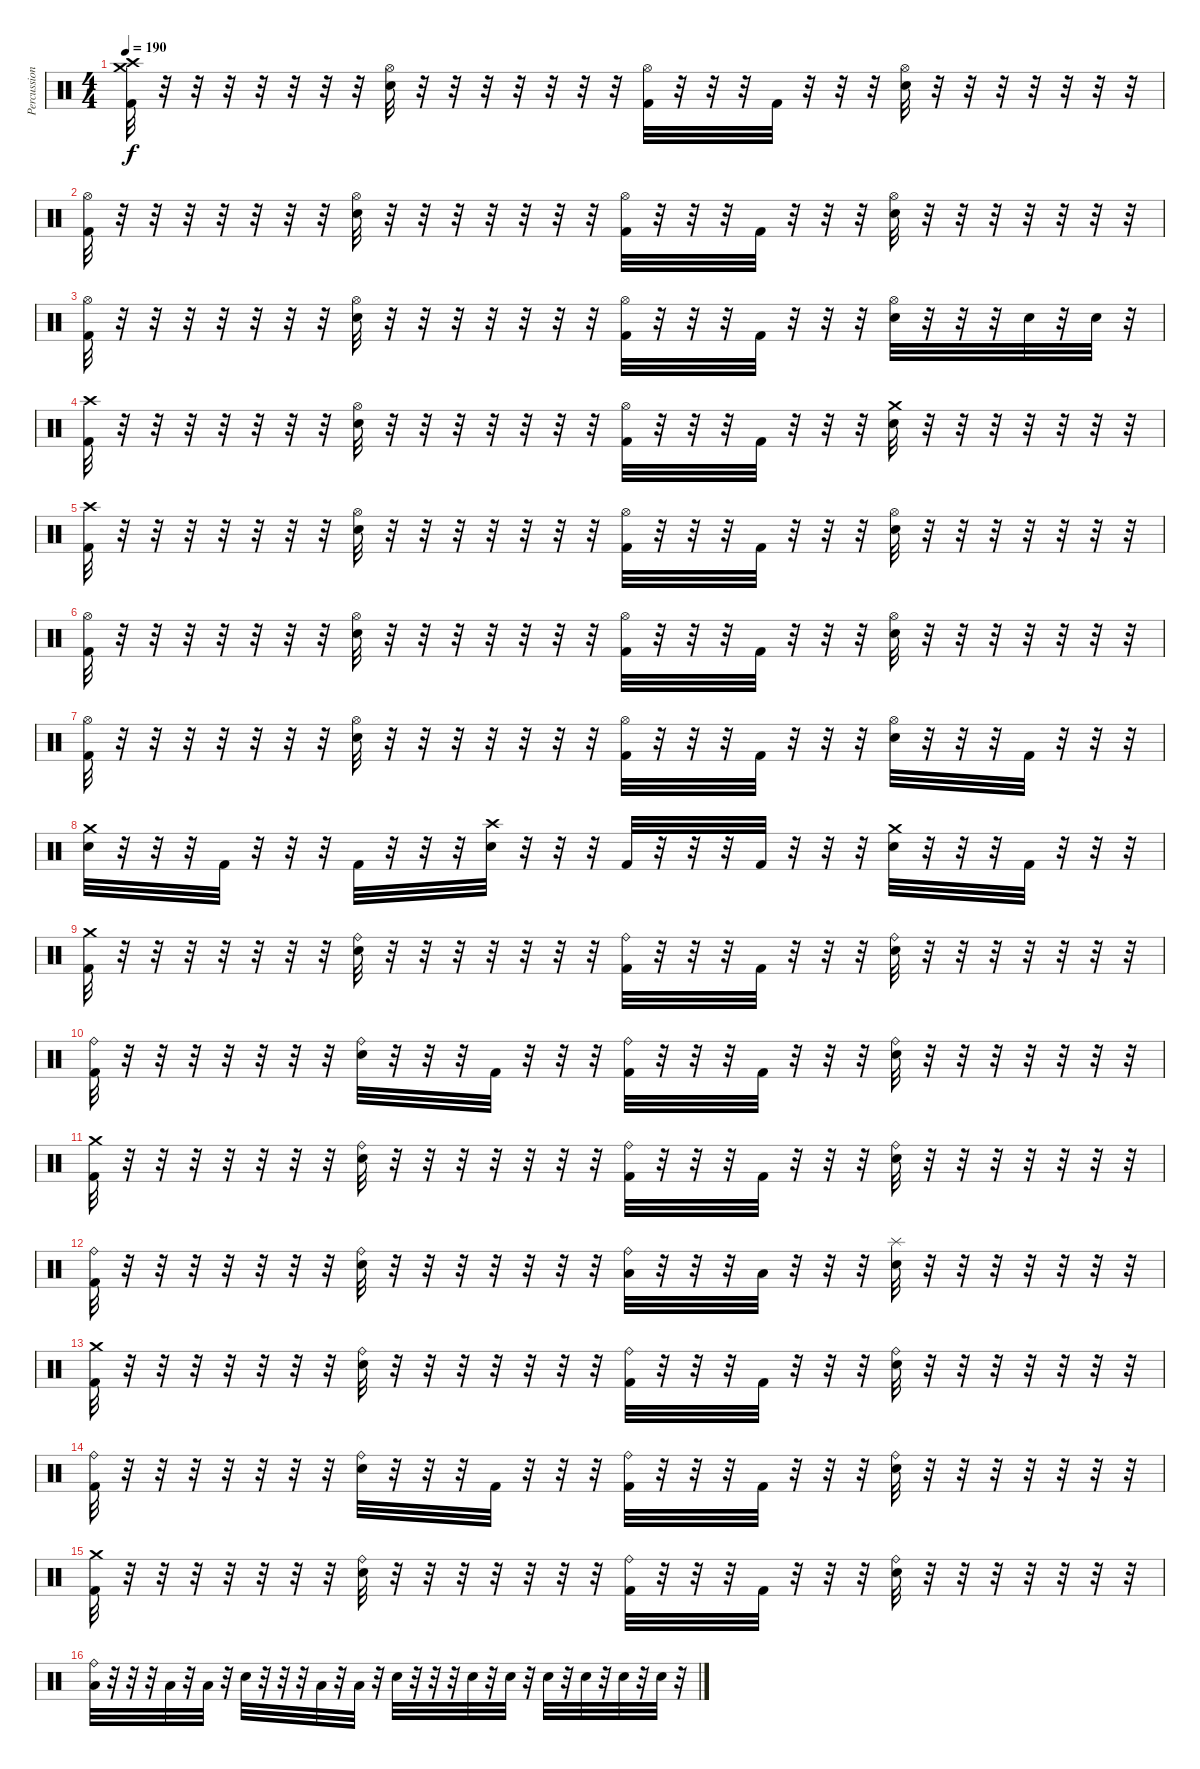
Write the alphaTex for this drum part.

\track ("Percussion" "Percussion") {instrument percussion}
\staff {score}
\articulation defaults
\ts (4 4)
\tempo 190
\clef neutral
\ks c
("Crash medium (hit)" "Crash high (hit)" "Kick (hit) 2").32{dy f} r.32 r.32 r.32 r.32 r.32 r.32 r.32 ("Electric Snare (hit)" "Hi-Hat (open)").32 r.32 r.32 r.32 r.32 r.32 r.32 r.32 ("Kick (hit) 2" "Hi-Hat (open)").32 r.32 r.32 r.32 "Kick (hit) 2".32 r.32 r.32 r.32 ("Electric Snare (hit)" "Hi-Hat (open)").32 r.32 r.32 r.32 r.32 r.32 r.32 r.32 |
("Kick (hit) 2" "Hi-Hat (open)").32 r.32 r.32 r.32 r.32 r.32 r.32 r.32 ("Electric Snare (hit)" "Hi-Hat (open)").32 r.32 r.32 r.32 r.32 r.32 r.32 r.32 ("Kick (hit) 2" "Hi-Hat (open)").32 r.32 r.32 r.32 "Kick (hit) 2".32 r.32 r.32 r.32 ("Electric Snare (hit)" "Hi-Hat (open)").32 r.32 r.32 r.32 r.32 r.32 r.32 r.32 |
("Kick (hit) 2" "Hi-Hat (open)").32 r.32 r.32 r.32 r.32 r.32 r.32 r.32 ("Electric Snare (hit)" "Hi-Hat (open)").32 r.32 r.32 r.32 r.32 r.32 r.32 r.32 ("Kick (hit) 2" "Hi-Hat (open)").32 r.32 r.32 r.32 "Kick (hit) 2".32 r.32 r.32 r.32 ("Electric Snare (hit)" "Hi-Hat (open)").32 r.32 r.32 r.32 "Electric Snare (hit)".32 r.32 "Electric Snare (hit)".32 r.32 |
("Crash high (hit)" "Kick (hit) 2").32 r.32 r.32 r.32 r.32 r.32 r.32 r.32 ("Electric Snare (hit)" "Hi-Hat (open)").32 r.32 r.32 r.32 r.32 r.32 r.32 r.32 ("Kick (hit) 2" "Hi-Hat (open)").32 r.32 r.32 r.32 "Kick (hit) 2".32 r.32 r.32 r.32 ("Crash medium (hit)" "Electric Snare (hit)").32 r.32 r.32 r.32 r.32 r.32 r.32 r.32 |
("Crash high (hit)" "Kick (hit) 2").32 r.32 r.32 r.32 r.32 r.32 r.32 r.32 ("Electric Snare (hit)" "Hi-Hat (open)").32 r.32 r.32 r.32 r.32 r.32 r.32 r.32 ("Kick (hit) 2" "Hi-Hat (open)").32 r.32 r.32 r.32 "Kick (hit) 2".32 r.32 r.32 r.32 ("Electric Snare (hit)" "Hi-Hat (open)").32 r.32 r.32 r.32 r.32 r.32 r.32 r.32 |
("Kick (hit) 2" "Hi-Hat (open)").32 r.32 r.32 r.32 r.32 r.32 r.32 r.32 ("Electric Snare (hit)" "Hi-Hat (open)").32 r.32 r.32 r.32 r.32 r.32 r.32 r.32 ("Kick (hit) 2" "Hi-Hat (open)").32 r.32 r.32 r.32 "Kick (hit) 2".32 r.32 r.32 r.32 ("Electric Snare (hit)" "Hi-Hat (open)").32 r.32 r.32 r.32 r.32 r.32 r.32 r.32 |
("Kick (hit) 2" "Hi-Hat (open)").32 r.32 r.32 r.32 r.32 r.32 r.32 r.32 ("Electric Snare (hit)" "Hi-Hat (open)").32 r.32 r.32 r.32 r.32 r.32 r.32 r.32 ("Kick (hit) 2" "Hi-Hat (open)").32 r.32 r.32 r.32 "Kick (hit) 2".32 r.32 r.32 r.32 ("Electric Snare (hit)" "Hi-Hat (open)").32 r.32 r.32 r.32 "Kick (hit) 2".32 r.32 r.32 r.32 |
("Crash medium (hit)" "Electric Snare (hit)").32 r.32 r.32 r.32 "Kick (hit) 2".32 r.32 r.32 r.32 "Kick (hit) 2".32 r.32 r.32 r.32 ("Crash high (hit)" "Electric Snare (hit)").32 r.32 r.32 r.32 "Kick (hit) 2".32 r.32 r.32 r.32 "Kick (hit) 2".32 r.32 r.32 r.32 ("Crash medium (hit)" "Electric Snare (hit)").32 r.32 r.32 r.32 "Kick (hit) 2".32 r.32 r.32 r.32 |
("Crash medium (hit)" "Kick (hit) 2").32 r.32 r.32 r.32 r.32 r.32 r.32 r.32 ("Ride (bell)" "Electric Snare (hit)").32 r.32 r.32 r.32 r.32 r.32 r.32 r.32 ("Ride (bell)" "Kick (hit) 2").32 r.32 r.32 r.32 "Kick (hit) 2".32 r.32 r.32 r.32 ("Ride (bell)" "Electric Snare (hit)").32 r.32 r.32 r.32 r.32 r.32 r.32 r.32 |
("Ride (bell)" "Kick (hit) 2").32 r.32 r.32 r.32 r.32 r.32 r.32 r.32 ("Ride (bell)" "Electric Snare (hit)").32 r.32 r.32 r.32 "Kick (hit) 2".32 r.32 r.32 r.32 ("Ride (bell)" "Kick (hit) 2").32 r.32 r.32 r.32 "Kick (hit) 2".32 r.32 r.32 r.32 ("Ride (bell)" "Electric Snare (hit)").32 r.32 r.32 r.32 r.32 r.32 r.32 r.32 |
("Crash medium (hit)" "Kick (hit) 2").32 r.32 r.32 r.32 r.32 r.32 r.32 r.32 ("Ride (bell)" "Electric Snare (hit)").32 r.32 r.32 r.32 r.32 r.32 r.32 r.32 ("Ride (bell)" "Kick (hit) 2").32 r.32 r.32 r.32 "Kick (hit) 2".32 r.32 r.32 r.32 ("Ride (bell)" "Electric Snare (hit)").32 r.32 r.32 r.32 r.32 r.32 r.32 r.32 |
("Ride (bell)" "Kick (hit) 2").32 r.32 r.32 r.32 r.32 r.32 r.32 r.32 ("Ride (bell)" "Electric Snare (hit)").32 r.32 r.32 r.32 r.32 r.32 r.32 r.32 ("Ride (bell)" "Low Tom (hit)").32 r.32 r.32 r.32 "Low Tom (hit)".32 r.32 r.32 r.32 ("Splash (hit)" "Electric Snare (hit)").32 r.32 r.32 r.32 r.32 r.32 r.32 r.32 |
("Crash medium (hit)" "Kick (hit) 2").32 r.32 r.32 r.32 r.32 r.32 r.32 r.32 ("Ride (bell)" "Electric Snare (hit)").32 r.32 r.32 r.32 r.32 r.32 r.32 r.32 ("Ride (bell)" "Kick (hit) 2").32 r.32 r.32 r.32 "Kick (hit) 2".32 r.32 r.32 r.32 ("Ride (bell)" "Electric Snare (hit)").32 r.32 r.32 r.32 r.32 r.32 r.32 r.32 |
("Ride (bell)" "Kick (hit) 2").32 r.32 r.32 r.32 r.32 r.32 r.32 r.32 ("Ride (bell)" "Electric Snare (hit)").32 r.32 r.32 r.32 "Kick (hit) 2".32 r.32 r.32 r.32 ("Ride (bell)" "Kick (hit) 2").32 r.32 r.32 r.32 "Kick (hit) 2".32 r.32 r.32 r.32 ("Ride (bell)" "Electric Snare (hit)").32 r.32 r.32 r.32 r.32 r.32 r.32 r.32 |
("Crash medium (hit)" "Kick (hit) 2").32 r.32 r.32 r.32 r.32 r.32 r.32 r.32 ("Ride (bell)" "Electric Snare (hit)").32 r.32 r.32 r.32 r.32 r.32 r.32 r.32 ("Ride (bell)" "Kick (hit) 2").32 r.32 r.32 r.32 "Kick (hit) 2".32 r.32 r.32 r.32 ("Ride (bell)" "Electric Snare (hit)").32 r.32 r.32 r.32 r.32 r.32 r.32 r.32 |
("Ride (bell)" "Low Floor Tom (hit)").32 r.32 r.32 r.32 "Low Tom (hit)".32 r.32 "Low Tom (hit)".32 r.32 "Electric Snare (hit)".32 r.32 r.32 r.32 "Low Tom (hit)".32 r.32 "Low Tom (hit)".32 r.32 "Electric Snare (hit)".32 r.32 r.32 r.32 "Electric Snare (hit)".32 r.32 "Electric Snare (hit)".32 r.32 "Electric Snare (hit)".32 r.32 "Electric Snare (hit)".32 r.32 "Electric Snare (hit)".32 r.32 "Electric Snare (hit)".32 r.32
